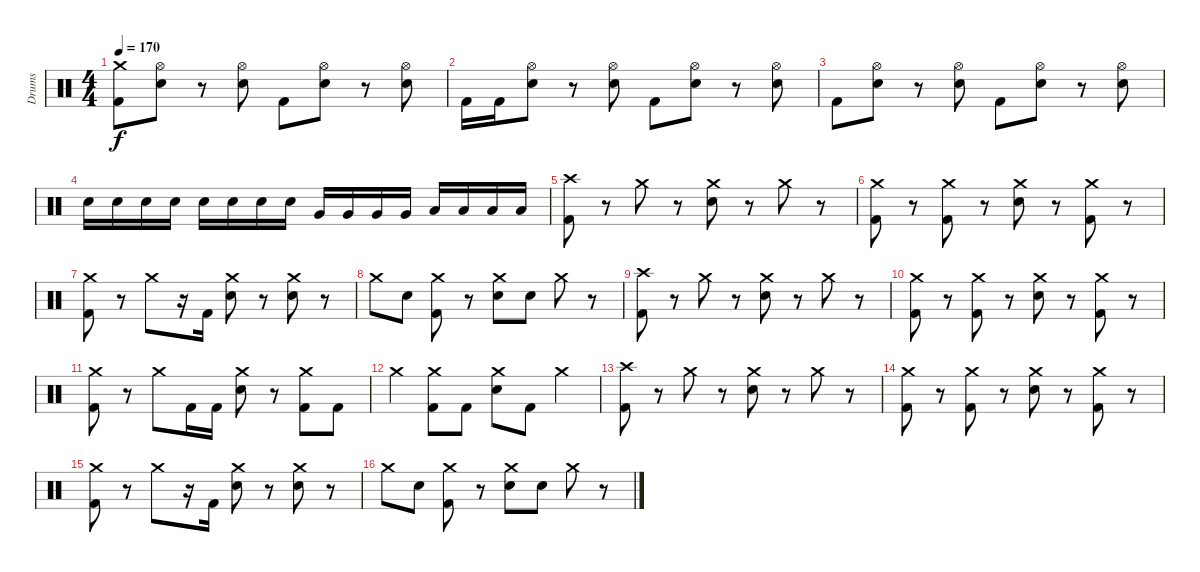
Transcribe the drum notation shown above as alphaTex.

\track ("Drums" "Drums") {instrument percussion}
\staff
\articulation defaults
\ts (4 4)
\tempo 170
\clef neutral
\ks c
("Crash medium (hit)" "Kick (hit) 2").8{dy f} ("Hi-Hat (open)" "Electric Snare (hit)").8 r.8 ("Hi-Hat (open)" "Electric Snare (hit)").8 "Kick (hit) 2".8 ("Hi-Hat (open)" "Electric Snare (hit)").8 r.8 ("Hi-Hat (open)" "Electric Snare (hit)").8 |
"Kick (hit) 2".16 "Kick (hit) 2".16 ("Hi-Hat (open)" "Electric Snare (hit)").8 r.8 ("Hi-Hat (open)" "Electric Snare (hit)").8 "Kick (hit) 2".8 ("Hi-Hat (open)" "Electric Snare (hit)").8 r.8 ("Hi-Hat (open)" "Electric Snare (hit)").8 |
"Kick (hit) 2".8 ("Hi-Hat (open)" "Electric Snare (hit)").8 r.8 ("Hi-Hat (open)" "Electric Snare (hit)").8 "Kick (hit) 2".8 ("Hi-Hat (open)" "Electric Snare (hit)").8 r.8 ("Hi-Hat (open)" "Electric Snare (hit)").8 |
"Electric Snare (hit)".16 "Electric Snare (hit)".16 "Electric Snare (hit)".16 "Electric Snare (hit)".16 "Electric Snare (hit)".16 "Electric Snare (hit)".16 "Electric Snare (hit)".16 "Electric Snare (hit)".16 "Very Low Tom (hit)".16 "Very Low Tom (hit)".16 "Very Low Tom (hit)".16 "Very Low Tom (hit)".16 "Low Floor Tom (hit)".16 "Low Floor Tom (hit)".16 "Low Floor Tom (hit)".16 "Low Floor Tom (hit)".16 |
("Crash high (hit)" "Kick (hit) 2").8 r.8 "Crash medium (hit)".8 r.8 ("Crash medium (hit)" "Electric Snare (hit)").8 r.8 "Crash medium (hit)".8 r.8 |
("Crash medium (hit)" "Kick (hit) 2").8 r.8 ("Crash medium (hit)" "Kick (hit) 2").8 r.8 ("Crash medium (hit)" "Electric Snare (hit)").8 r.8 ("Crash medium (hit)" "Kick (hit) 2").8 r.8 |
("Crash medium (hit)" "Kick (hit) 2").8 r.8 "Crash medium (hit)".8 r.16 "Kick (hit) 2".16 ("Crash medium (hit)" "Electric Snare (hit)").8 r.8 ("Crash medium (hit)" "Electric Snare (hit)").8 r.8 |
"Crash medium (hit)".8 "Electric Snare (hit)".8 ("Crash medium (hit)" "Kick (hit) 2").8 r.8 ("Crash medium (hit)" "Electric Snare (hit)").8 "Electric Snare (hit)".8 "Crash medium (hit)".8 r.8 |
("Crash high (hit)" "Kick (hit) 2").8 r.8 "Crash medium (hit)".8 r.8 ("Crash medium (hit)" "Electric Snare (hit)").8 r.8 "Crash medium (hit)".8 r.8 |
("Crash medium (hit)" "Kick (hit) 2").8 r.8 ("Crash medium (hit)" "Kick (hit) 2").8 r.8 ("Crash medium (hit)" "Electric Snare (hit)").8 r.8 ("Crash medium (hit)" "Kick (hit) 2").8 r.8 |
("Crash medium (hit)" "Kick (hit) 2").8 r.8 "Crash medium (hit)".8 "Kick (hit) 2".16 "Kick (hit) 2".16 ("Crash medium (hit)" "Electric Snare (hit)").8 r.8 ("Crash medium (hit)" "Kick (hit) 2").8 "Kick (hit) 2".8 |
"Crash medium (hit)".4 ("Crash medium (hit)" "Kick (hit) 2").8 "Kick (hit) 2".8 ("Crash medium (hit)" "Electric Snare (hit)").8 "Kick (hit) 2".8 "Crash medium (hit)".4 |
("Crash high (hit)" "Kick (hit) 2").8 r.8 "Crash medium (hit)".8 r.8 ("Crash medium (hit)" "Electric Snare (hit)").8 r.8 "Crash medium (hit)".8 r.8 |
("Crash medium (hit)" "Kick (hit) 2").8 r.8 ("Crash medium (hit)" "Kick (hit) 2").8 r.8 ("Crash medium (hit)" "Electric Snare (hit)").8 r.8 ("Crash medium (hit)" "Kick (hit) 2").8 r.8 |
("Crash medium (hit)" "Kick (hit) 2").8 r.8 "Crash medium (hit)".8 r.16 "Kick (hit) 2".16 ("Crash medium (hit)" "Electric Snare (hit)").8 r.8 ("Crash medium (hit)" "Electric Snare (hit)").8 r.8 |
"Crash medium (hit)".8 "Electric Snare (hit)".8 ("Crash medium (hit)" "Kick (hit) 2").8 r.8 ("Crash medium (hit)" "Electric Snare (hit)").8 "Electric Snare (hit)".8 "Crash medium (hit)".8 r.8
